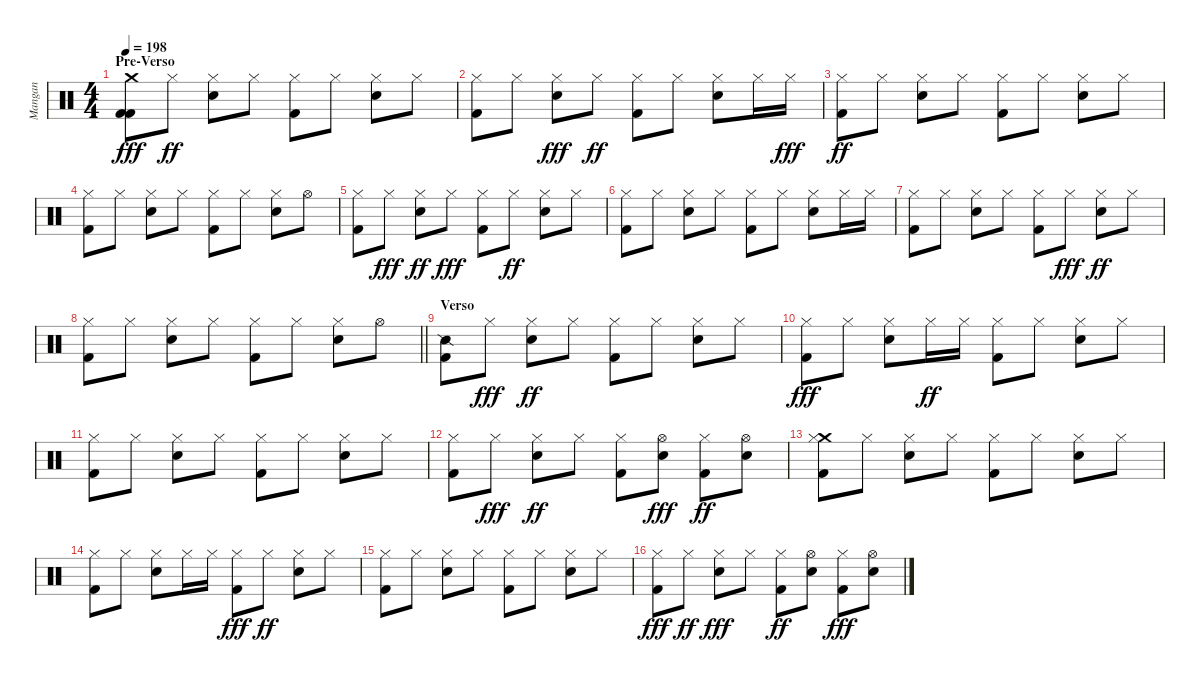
\track ("Mangan" "Mangan") {instrument percussion}
\staff {score}
\articulation defaults
\ts (4 4)
\section ("" "Pre-Verso")
\tempo 198
\clef neutral
\ks c
("Kick (hit) 2" "Kick (hit) 2" "Crash medium (hit)").8{dy fff} "Hi-Hat (closed)".8{dy ff} ("Snare (hit) 2" "Hi-Hat (closed)").8 "Hi-Hat (closed)".8 ("Kick (hit) 2" "Hi-Hat (closed)").8 "Hi-Hat (closed)".8 ("Snare (hit) 2" "Hi-Hat (closed)").8 "Hi-Hat (closed)".8 |
("Kick (hit) 2" "Hi-Hat (closed)").8 "Hi-Hat (closed)".8 ("Snare (hit) 2" "Hi-Hat (closed)").8{dy fff} "Hi-Hat (closed)".8{dy ff} ("Kick (hit) 2" "Hi-Hat (closed)").8 "Hi-Hat (closed)".8 ("Snare (hit) 2" "Hi-Hat (closed)").8 "Hi-Hat (closed)".16 "Hi-Hat (closed)".16{dy fff} |
("Kick (hit) 2" "Hi-Hat (closed)").8{dy ff} "Hi-Hat (closed)".8 ("Snare (hit) 2" "Hi-Hat (closed)").8 "Hi-Hat (closed)".8 ("Kick (hit) 2" "Hi-Hat (closed)").8 "Hi-Hat (closed)".8 ("Snare (hit) 2" "Hi-Hat (closed)").8 "Hi-Hat (closed)".8 |
("Kick (hit) 2" "Hi-Hat (closed)").8 "Hi-Hat (closed)".8 ("Snare (hit) 2" "Hi-Hat (closed)").8 "Hi-Hat (closed)".8 ("Kick (hit) 2" "Hi-Hat (closed)").8 "Hi-Hat (closed)".8 ("Snare (hit) 2" "Hi-Hat (closed)").8 "Hi-Hat (open)".8 |
("Kick (hit) 2" "Hi-Hat (closed)").8 "Hi-Hat (closed)".8{dy fff} ("Snare (hit) 2" "Hi-Hat (closed)").8{dy ff} "Hi-Hat (closed)".8{dy fff} ("Kick (hit) 2" "Hi-Hat (closed)").8 "Hi-Hat (closed)".8{dy ff} ("Snare (hit) 2" "Hi-Hat (closed)").8 "Hi-Hat (closed)".8 |
("Kick (hit) 2" "Hi-Hat (closed)").8 "Hi-Hat (closed)".8 ("Snare (hit) 2" "Hi-Hat (closed)").8 "Hi-Hat (closed)".8 ("Kick (hit) 2" "Hi-Hat (closed)").8 "Hi-Hat (closed)".8 ("Snare (hit) 2" "Hi-Hat (closed)").8 "Hi-Hat (closed)".16 "Hi-Hat (closed)".16 |
("Kick (hit) 2" "Hi-Hat (closed)").8 "Hi-Hat (closed)".8 ("Snare (hit) 2" "Hi-Hat (closed)").8 "Hi-Hat (closed)".8 ("Kick (hit) 2" "Hi-Hat (closed)").8 "Hi-Hat (closed)".8{dy fff} ("Snare (hit) 2" "Hi-Hat (closed)").8{dy ff} "Hi-Hat (closed)".8 |
\barLineRight lightlight
("Kick (hit) 2" "Hi-Hat (closed)").8 "Hi-Hat (closed)".8 ("Snare (hit) 2" "Hi-Hat (closed)").8 "Hi-Hat (closed)".8 ("Kick (hit) 2" "Hi-Hat (closed)").8 "Hi-Hat (closed)".8 ("Snare (hit) 2" "Hi-Hat (closed)").8 "Hi-Hat (open)".8 |
\section ("" "Verso")
("Snare (side stick) 2" "Kick (hit) 2").8 "Hi-Hat (closed)".8{dy fff} ("Snare (hit) 2" "Hi-Hat (closed)").8{dy ff} "Hi-Hat (closed)".8 ("Kick (hit) 2" "Hi-Hat (closed)").8 "Hi-Hat (closed)".8 ("Snare (hit) 2" "Hi-Hat (closed)").8 "Hi-Hat (closed)".8 |
("Kick (hit) 2" "Hi-Hat (closed)").8{dy fff} "Hi-Hat (closed)".8 ("Snare (hit) 2" "Hi-Hat (closed)").8 "Hi-Hat (closed)".16{dy ff} "Hi-Hat (closed)".16 ("Kick (hit) 2" "Hi-Hat (closed)").8 "Hi-Hat (closed)".8 ("Snare (hit) 2" "Hi-Hat (closed)").8 "Hi-Hat (closed)".8 |
("Kick (hit) 2" "Hi-Hat (closed)").8 "Hi-Hat (closed)".8 ("Snare (hit) 2" "Hi-Hat (closed)").8 "Hi-Hat (closed)".8 ("Kick (hit) 2" "Hi-Hat (closed)").8 "Hi-Hat (closed)".8 ("Snare (hit) 2" "Hi-Hat (closed)").8 "Hi-Hat (closed)".8 |
("Kick (hit) 2" "Hi-Hat (closed)").8 "Hi-Hat (closed)".8{dy fff} ("Snare (hit) 2" "Hi-Hat (closed)").8{dy ff} "Hi-Hat (closed)".8 ("Kick (hit) 2" "Hi-Hat (closed)").8 ("Snare (hit) 2" "Hi-Hat (open)").8{dy fff} ("Kick (hit) 2" "Hi-Hat (closed)").8{dy ff} ("Snare (hit) 2" "Hi-Hat (open)").8 |
("Kick (hit) 2" "Crash medium (hit)" "Hi-Hat (closed)").8 "Hi-Hat (closed)".8 ("Snare (hit) 2" "Hi-Hat (closed)").8 "Hi-Hat (closed)".8 ("Kick (hit) 2" "Hi-Hat (closed)").8 "Hi-Hat (closed)".8 ("Snare (hit) 2" "Hi-Hat (closed)").8 "Hi-Hat (closed)".8 |
("Kick (hit) 2" "Hi-Hat (closed)").8 "Hi-Hat (closed)".8 ("Snare (hit) 2" "Hi-Hat (closed)").8 "Hi-Hat (closed)".16 "Hi-Hat (closed)".16 ("Kick (hit) 2" "Hi-Hat (closed)").8{dy fff} "Hi-Hat (closed)".8{dy ff} ("Snare (hit) 2" "Hi-Hat (closed)").8 "Hi-Hat (closed)".8 |
("Kick (hit) 2" "Hi-Hat (closed)").8 "Hi-Hat (closed)".8 ("Snare (hit) 2" "Hi-Hat (closed)").8 "Hi-Hat (closed)".8 ("Kick (hit) 2" "Hi-Hat (closed)").8 "Hi-Hat (closed)".8 ("Snare (hit) 2" "Hi-Hat (closed)").8 "Hi-Hat (closed)".8 |
("Kick (hit) 2" "Hi-Hat (closed)").8{dy fff} "Hi-Hat (closed)".8{dy ff} ("Snare (hit) 2" "Hi-Hat (closed)").8{dy fff} "Hi-Hat (closed)".8 ("Kick (hit) 2" "Hi-Hat (closed)").8{dy ff} ("Snare (hit) 2" "Hi-Hat (open)").8 ("Kick (hit) 2" "Hi-Hat (closed)").8{dy fff} ("Snare (hit) 2" "Hi-Hat (open)").8
